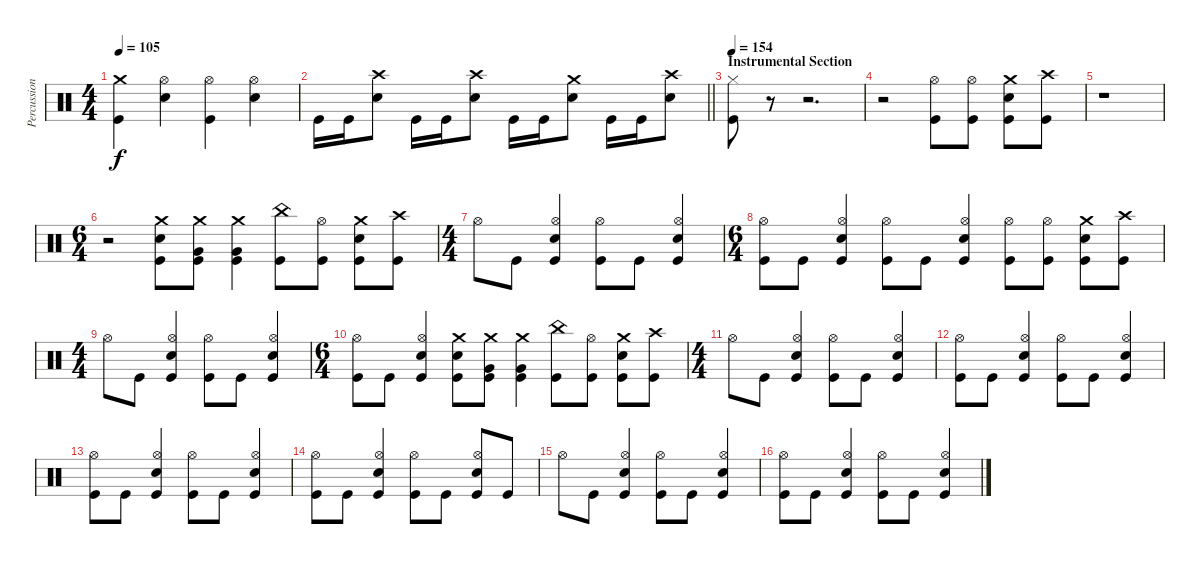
\track ("Percussions" "Percussion") {instrument percussion}
\staff {score}
\articulation defaults
\ts (4 4)
\tempo 105
\clef neutral
\ks c
("Crash medium (hit)" "Kick (hit)").4{dy f} ("Hi-Hat (open)" "Electric Snare (hit)").4 ("Hi-Hat (open)" "Kick (hit)").4 ("Hi-Hat (open)" "Electric Snare (hit)").4 |
\barLineRight lightlight "Kick (hit)".16 "Kick (hit)".16
("Crash high (hit)" "Electric Snare (hit)").8 "Kick (hit)".16 "Kick (hit)".16 ("Crash high (hit)" "Electric Snare (hit)").8 "Kick (hit)".16 "Kick (hit)".16 ("Crash medium (hit)" "Electric Snare (hit)").8 "Kick (hit)".16 "Kick (hit)".16 ("Crash high (hit)" "Electric Snare (hit)").8 |
\section ("" "Instrumental Section")
\tempo 154
("Hi-Hat (closed)" "Kick (hit)").8 r.8 r.2{d} |
r.2 ("Hi-Hat (open)" "Kick (hit)").8 ("Hi-Hat (open)" "Kick (hit)").8 ("Crash medium (hit)" "Electric Snare (hit)" "Kick (hit)").8 ("Crash high (hit)" "Kick (hit)").8 |
r.1 |
\ts (6 4)
r.2 ("Crash medium (hit)" "Electric Snare (hit)" "Kick (hit)").8 ("Crash medium (hit)" "Very Low Tom (hit)" "Kick (hit)").8 ("Crash medium (hit)" "Very Low Tom (hit)" "Kick (hit)").4 ("China (hit)" "Kick (hit)").8 ("Hi-Hat (open)" "Kick (hit)").8 ("Crash medium (hit)" "Electric Snare (hit)" "Kick (hit)").8 ("Crash high (hit)" "Kick (hit)").8 |
\ts (4 4)
"Hi-Hat (open)".8 "Kick (hit)".8 ("Hi-Hat (open)" "Electric Snare (hit)" "Kick (hit)").4 ("Hi-Hat (open)" "Kick (hit)").8 "Kick (hit)".8 ("Hi-Hat (open)" "Electric Snare (hit)" "Kick (hit)").4 |
\ts (6 4)
("Hi-Hat (open)" "Kick (hit)").8 "Kick (hit)".8 ("Hi-Hat (open)" "Electric Snare (hit)" "Kick (hit)").4 ("Hi-Hat (open)" "Kick (hit)").8 "Kick (hit)".8 ("Hi-Hat (open)" "Electric Snare (hit)" "Kick (hit)").4 ("Hi-Hat (open)" "Kick (hit)").8 ("Hi-Hat (open)" "Kick (hit)").8 ("Crash medium (hit)" "Electric Snare (hit)" "Kick (hit)").8 ("Crash high (hit)" "Kick (hit)").8 |
\ts (4 4)
"Hi-Hat (open)".8 "Kick (hit)".8 ("Hi-Hat (open)" "Electric Snare (hit)" "Kick (hit)").4 ("Hi-Hat (open)" "Kick (hit)").8 "Kick (hit)".8 ("Hi-Hat (open)" "Electric Snare (hit)" "Kick (hit)").4 |
\ts (6 4)
("Hi-Hat (open)" "Kick (hit)").8 "Kick (hit)".8 ("Hi-Hat (open)" "Electric Snare (hit)" "Kick (hit)").4 ("Crash medium (hit)" "Electric Snare (hit)" "Kick (hit)").8 ("Crash medium (hit)" "Very Low Tom (hit)" "Kick (hit)").8 ("Crash medium (hit)" "Very Low Tom (hit)" "Kick (hit)").4 ("China (hit)" "Kick (hit)").8 ("Hi-Hat (open)" "Kick (hit)").8 ("Crash medium (hit)" "Electric Snare (hit)" "Kick (hit)").8 ("Crash high (hit)" "Kick (hit)").8 |
\ts (4 4)
"Hi-Hat (open)".8 "Kick (hit)".8 ("Hi-Hat (open)" "Electric Snare (hit)" "Kick (hit)").4 ("Hi-Hat (open)" "Kick (hit)").8 "Kick (hit)".8 ("Hi-Hat (open)" "Electric Snare (hit)" "Kick (hit)").4 |
("Hi-Hat (open)" "Kick (hit)").8 "Kick (hit)".8 ("Hi-Hat (open)" "Electric Snare (hit)" "Kick (hit)").4 ("Hi-Hat (open)" "Kick (hit)").8 "Kick (hit)".8 ("Hi-Hat (open)" "Electric Snare (hit)" "Kick (hit)").4 |
("Hi-Hat (open)" "Kick (hit)").8 "Kick (hit)".8 ("Hi-Hat (open)" "Electric Snare (hit)" "Kick (hit)").4 ("Hi-Hat (open)" "Kick (hit)").8 "Kick (hit)".8 ("Hi-Hat (open)" "Electric Snare (hit)" "Kick (hit)").4 |
("Hi-Hat (open)" "Kick (hit)").8 "Kick (hit)".8 ("Hi-Hat (open)" "Electric Snare (hit)" "Kick (hit)").4 ("Hi-Hat (open)" "Kick (hit)").8 "Kick (hit)".8 ("Hi-Hat (open)" "Electric Snare (hit)" "Kick (hit)").8 "Kick (hit)".8 |
"Hi-Hat (open)".8 "Kick (hit)".8 ("Hi-Hat (open)" "Electric Snare (hit)" "Kick (hit)").4 ("Hi-Hat (open)" "Kick (hit)").8 "Kick (hit)".8 ("Hi-Hat (open)" "Electric Snare (hit)" "Kick (hit)").4 |
("Hi-Hat (open)" "Kick (hit)").8 "Kick (hit)".8 ("Hi-Hat (open)" "Electric Snare (hit)" "Kick (hit)").4 ("Hi-Hat (open)" "Kick (hit)").8 "Kick (hit)".8 ("Hi-Hat (open)" "Electric Snare (hit)" "Kick (hit)").4
